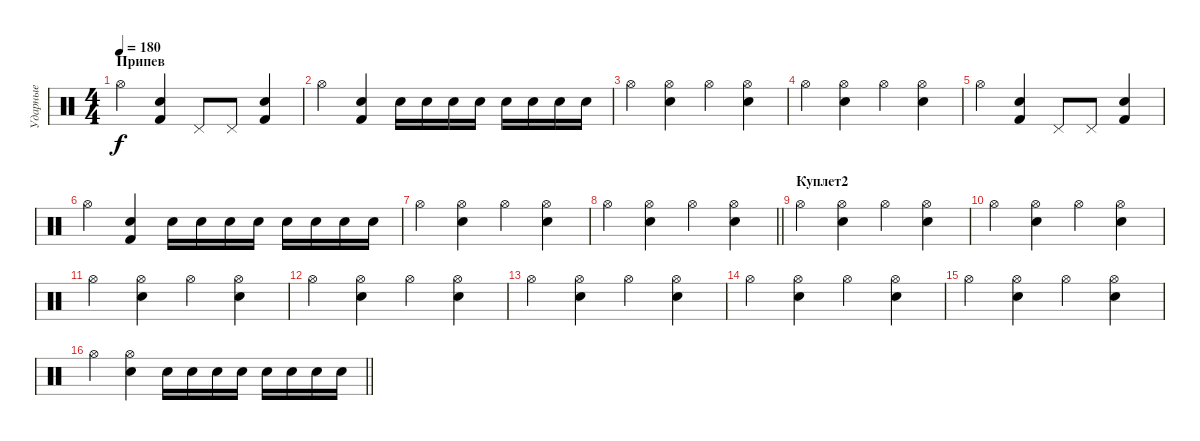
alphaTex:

\track ("Ударные" "Ударные") {instrument percussion}
\staff {score}
\articulation defaults
\ts (4 4)
\section ("" "Припев")
\tempo 180
\clef neutral
\ks c "Hi-Hat (open)".4{dy f}
("Kick (hit) 2" "Electric Snare (hit)").4 "Pedal Hi-Hat (hit)".8 "Pedal Hi-Hat (hit)".8 ("Kick (hit) 2" "Electric Snare (hit)").4 |
"Hi-Hat (open)".4 ("Kick (hit) 2" "Electric Snare (hit)").4 "Electric Snare (hit)".16 "Electric Snare (hit)".16 "Snare (hit) 2".16 "Electric Snare (hit)".16 "Snare (hit) 2".16 "Electric Snare (hit)".16 "Snare (hit) 2".16 "Electric Snare (hit)".16 |
"Hi-Hat (open)".4 ("Electric Snare (hit)" "Hi-Hat (open)").4 "Hi-Hat (open)".4 ("Electric Snare (hit)" "Hi-Hat (open)").4 |
"Hi-Hat (open)".4 ("Electric Snare (hit)" "Hi-Hat (open)").4 "Hi-Hat (open)".4 ("Electric Snare (hit)" "Hi-Hat (open)").4 |
"Hi-Hat (open)".4 ("Kick (hit) 2" "Electric Snare (hit)").4 "Pedal Hi-Hat (hit)".8 "Pedal Hi-Hat (hit)".8 ("Kick (hit) 2" "Electric Snare (hit)").4 |
"Hi-Hat (open)".4 ("Kick (hit) 2" "Electric Snare (hit)").4 "Electric Snare (hit)".16 "Electric Snare (hit)".16 "Snare (hit) 2".16 "Electric Snare (hit)".16 "Snare (hit) 2".16 "Electric Snare (hit)".16 "Snare (hit) 2".16 "Electric Snare (hit)".16 |
"Hi-Hat (open)".4 ("Electric Snare (hit)" "Hi-Hat (open)").4 "Hi-Hat (open)".4 ("Electric Snare (hit)" "Hi-Hat (open)").4 |
\barLineRight lightlight "Hi-Hat (open)".4
("Electric Snare (hit)" "Hi-Hat (open)").4 "Hi-Hat (open)".4 ("Electric Snare (hit)" "Hi-Hat (open)").4 |
\section ("" "Куплет2")
"Hi-Hat (open)".4 ("Electric Snare (hit)" "Hi-Hat (open)").4 "Hi-Hat (open)".4 ("Electric Snare (hit)" "Hi-Hat (open)").4 |
"Hi-Hat (open)".4 ("Electric Snare (hit)" "Hi-Hat (open)").4 "Hi-Hat (open)".4 ("Electric Snare (hit)" "Hi-Hat (open)").4 |
"Hi-Hat (open)".4 ("Electric Snare (hit)" "Hi-Hat (open)").4 "Hi-Hat (open)".4 ("Electric Snare (hit)" "Hi-Hat (open)").4 |
"Hi-Hat (open)".4 ("Electric Snare (hit)" "Hi-Hat (open)").4 "Hi-Hat (open)".4 ("Electric Snare (hit)" "Hi-Hat (open)").4 |
"Hi-Hat (open)".4 ("Electric Snare (hit)" "Hi-Hat (open)").4 "Hi-Hat (open)".4 ("Electric Snare (hit)" "Hi-Hat (open)").4 |
"Hi-Hat (open)".4 ("Electric Snare (hit)" "Hi-Hat (open)").4 "Hi-Hat (open)".4 ("Electric Snare (hit)" "Hi-Hat (open)").4 |
"Hi-Hat (open)".4 ("Electric Snare (hit)" "Hi-Hat (open)").4 "Hi-Hat (open)".4 ("Electric Snare (hit)" "Hi-Hat (open)").4 |
\barLineRight lightlight "Hi-Hat (open)".4
("Electric Snare (hit)" "Hi-Hat (open)").4 "Electric Snare (hit)".16 "Electric Snare (hit)".16 "Snare (hit) 2".16 "Electric Snare (hit)".16 "Snare (hit) 2".16 "Electric Snare (hit)".16 "Snare (hit) 2".16 "Electric Snare (hit)".16
